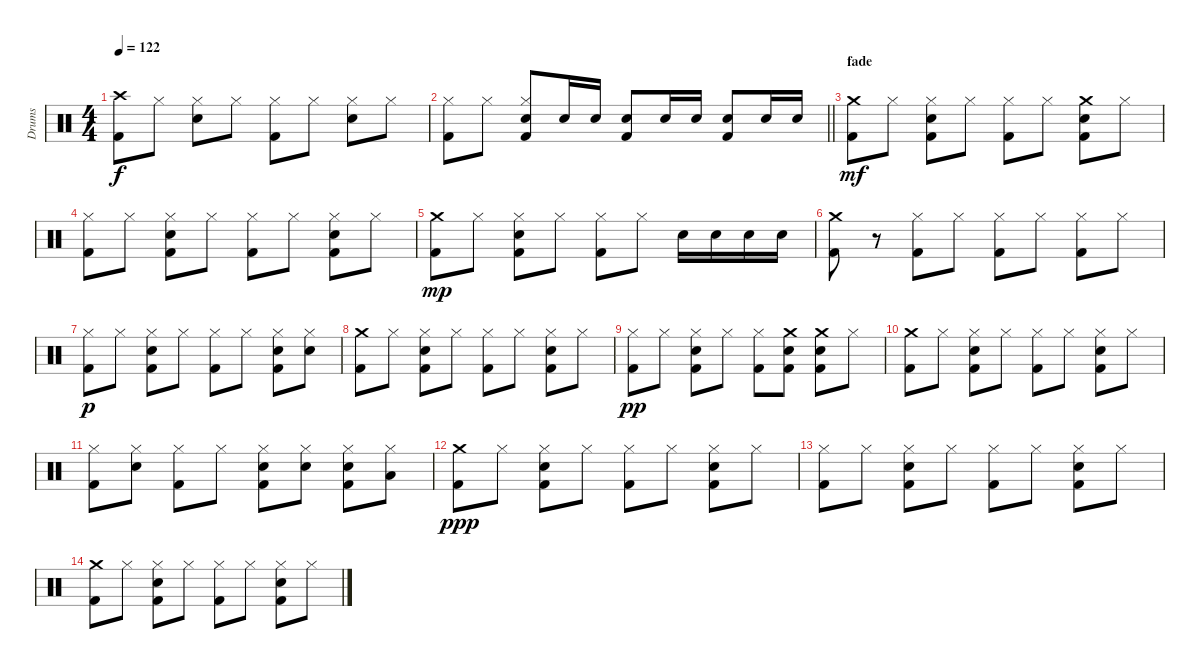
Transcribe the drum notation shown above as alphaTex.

\track ("Drums" "Drums") {instrument percussion}
\staff {score}
\articulation defaults
\ts (4 4)
\tempo 122
\clef neutral
\ks c
("Crash high (hit)" "Kick (hit) 2").8{dy f} "Hi-Hat (closed)".8 ("Hi-Hat (closed)" "Electric Snare (hit)").8 "Hi-Hat (closed)".8 ("Hi-Hat (closed)" "Kick (hit) 2").8 "Hi-Hat (closed)".8 ("Hi-Hat (closed)" "Electric Snare (hit)").8 "Hi-Hat (closed)".8 |
\barLineRight lightlight
("Hi-Hat (closed)" "Kick (hit) 2").8 "Hi-Hat (closed)".8 ("Hi-Hat (closed)" "Electric Snare (hit)" "Kick (hit) 2").8 "Electric Snare (hit)".16 "Electric Snare (hit)".16 ("Electric Snare (hit)" "Kick (hit) 2").8 "Electric Snare (hit)".16 "Electric Snare (hit)".16 ("Electric Snare (hit)" "Kick (hit) 2").8 "Electric Snare (hit)".16 "Electric Snare (hit)".16 |
\section ("" "fade")
("Crash medium (hit)" "Kick (hit) 2").8{dy mf} "Hi-Hat (closed)".8 ("Hi-Hat (closed)" "Electric Snare (hit)" "Kick (hit) 2").8 "Hi-Hat (closed)".8 ("Hi-Hat (closed)" "Kick (hit) 2").8 "Hi-Hat (closed)".8 ("Crash medium (hit)" "Electric Snare (hit)" "Kick (hit) 2").8 "Hi-Hat (closed)".8 |
("Hi-Hat (closed)" "Kick (hit) 2").8 "Hi-Hat (closed)".8 ("Hi-Hat (closed)" "Electric Snare (hit)" "Kick (hit) 2").8 "Hi-Hat (closed)".8 ("Hi-Hat (closed)" "Kick (hit) 2").8 "Hi-Hat (closed)".8 ("Hi-Hat (closed)" "Electric Snare (hit)" "Kick (hit) 2").8 "Hi-Hat (closed)".8 |
("Crash medium (hit)" "Kick (hit) 2").8{dy mp} "Hi-Hat (closed)".8 ("Hi-Hat (closed)" "Electric Snare (hit)" "Kick (hit) 2").8 "Hi-Hat (closed)".8 ("Hi-Hat (closed)" "Kick (hit) 2").8 "Hi-Hat (closed)".8 "Electric Snare (hit)".16 "Electric Snare (hit)".16 "Electric Snare (hit)".16 "Electric Snare (hit)".16 |
("Crash medium (hit)" "Kick (hit) 2").8 r.8 ("Hi-Hat (closed)" "Kick (hit) 2").8 "Hi-Hat (closed)".8 ("Hi-Hat (closed)" "Kick (hit) 2").8 "Hi-Hat (closed)".8 ("Hi-Hat (closed)" "Kick (hit) 2").8 "Hi-Hat (closed)".8 |
("Hi-Hat (closed)" "Kick (hit) 2").8{dy p} "Hi-Hat (closed)".8 ("Hi-Hat (closed)" "Electric Snare (hit)" "Kick (hit) 2").8 "Hi-Hat (closed)".8 ("Hi-Hat (closed)" "Kick (hit) 2").8 "Hi-Hat (closed)".8 ("Hi-Hat (closed)" "Electric Snare (hit)" "Kick (hit) 2").8 ("Hi-Hat (closed)" "Electric Snare (hit)").8 |
("Crash medium (hit)" "Kick (hit) 2").8 "Hi-Hat (closed)".8 ("Hi-Hat (closed)" "Electric Snare (hit)" "Kick (hit) 2").8 "Hi-Hat (closed)".8 ("Hi-Hat (closed)" "Kick (hit) 2").8 "Hi-Hat (closed)".8 ("Hi-Hat (closed)" "Electric Snare (hit)" "Kick (hit) 2").8 "Hi-Hat (closed)".8 |
("Hi-Hat (closed)" "Kick (hit) 2").8{dy pp} "Hi-Hat (closed)".8 ("Hi-Hat (closed)" "Electric Snare (hit)" "Kick (hit) 2").8 "Hi-Hat (closed)".8 ("Hi-Hat (closed)" "Kick (hit) 2").8 ("Crash medium (hit)" "Electric Snare (hit)" "Kick (hit) 2").8 ("Crash medium (hit)" "Electric Snare (hit)" "Kick (hit) 2").8 "Hi-Hat (closed)".8 |
("Crash medium (hit)" "Kick (hit) 2").8 "Hi-Hat (closed)".8 ("Hi-Hat (closed)" "Electric Snare (hit)" "Kick (hit) 2").8 "Hi-Hat (closed)".8 ("Hi-Hat (closed)" "Kick (hit) 2").8 "Hi-Hat (closed)".8 ("Hi-Hat (closed)" "Electric Snare (hit)" "Kick (hit) 2").8 "Hi-Hat (closed)".8 |
("Hi-Hat (closed)" "Kick (hit) 2").8 ("Hi-Hat (closed)" "Electric Snare (hit)").8 ("Hi-Hat (closed)" "Kick (hit) 2").8 "Hi-Hat (closed)".8 ("Hi-Hat (closed)" "Electric Snare (hit)" "Kick (hit) 2").8 ("Hi-Hat (closed)" "Electric Snare (hit)").8 ("Hi-Hat (closed)" "Electric Snare (hit)" "Kick (hit) 2").8 ("Hi-Hat (closed)" "Low Tom (hit)").8 |
("Crash medium (hit)" "Kick (hit) 2").8{dy ppp} "Hi-Hat (closed)".8 ("Hi-Hat (closed)" "Electric Snare (hit)" "Kick (hit) 2").8 "Hi-Hat (closed)".8 ("Hi-Hat (closed)" "Kick (hit) 2").8 "Hi-Hat (closed)".8 ("Hi-Hat (closed)" "Electric Snare (hit)" "Kick (hit) 2").8 "Hi-Hat (closed)".8 |
("Hi-Hat (closed)" "Kick (hit) 2").8 "Hi-Hat (closed)".8 ("Hi-Hat (closed)" "Electric Snare (hit)" "Kick (hit) 2").8 "Hi-Hat (closed)".8 ("Hi-Hat (closed)" "Kick (hit) 2").8 "Hi-Hat (closed)".8 ("Hi-Hat (closed)" "Electric Snare (hit)" "Kick (hit) 2").8 "Hi-Hat (closed)".8 |
("Crash medium (hit)" "Kick (hit) 2").8 "Hi-Hat (closed)".8 ("Hi-Hat (closed)" "Electric Snare (hit)" "Kick (hit) 2").8 "Hi-Hat (closed)".8 ("Hi-Hat (closed)" "Kick (hit) 2").8 "Hi-Hat (closed)".8 ("Hi-Hat (closed)" "Electric Snare (hit)" "Kick (hit) 2").8 "Hi-Hat (closed)".8
